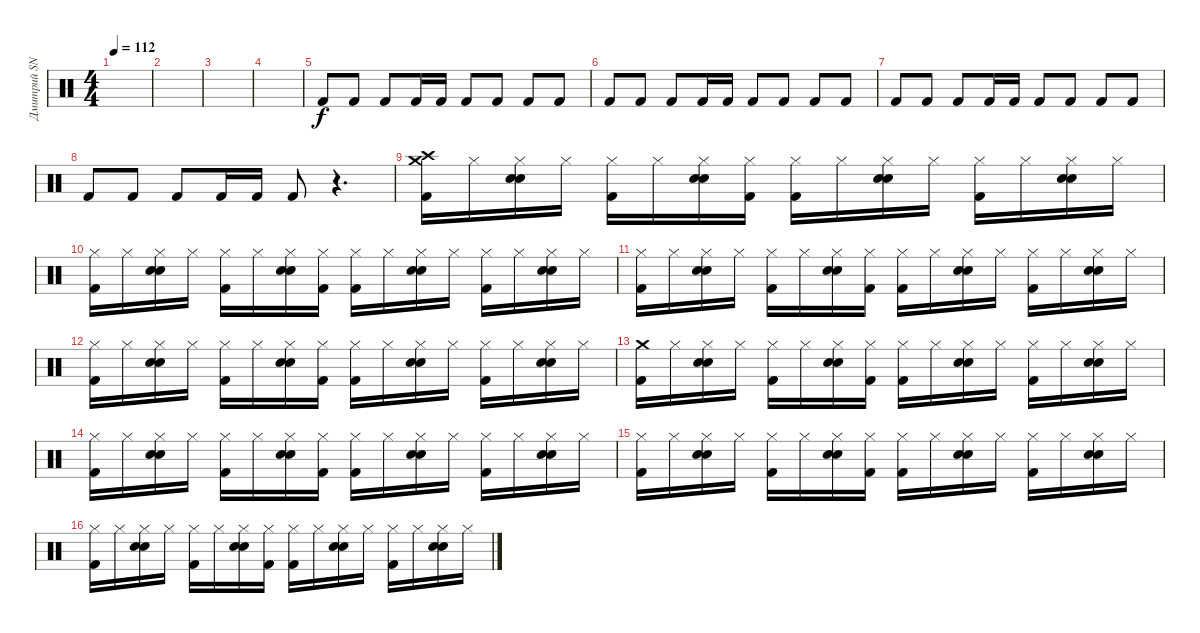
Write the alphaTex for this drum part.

\track ("Дмитрий SNAKE Хакимов" "Дмитрий SN") {instrument percussion}
\staff {score}
\articulation defaults
\ts (4 4)
\tempo 112
\clef neutral
\ks c
|
|
|
|
"Kick (hit) 2".8 "Kick (hit) 2".8 "Kick (hit) 2".8 "Kick (hit) 2".16 "Kick (hit) 2".16 "Kick (hit) 2".8 "Kick (hit) 2".8 "Kick (hit) 2".8 "Kick (hit) 2".8 |
"Kick (hit) 2".8 "Kick (hit) 2".8 "Kick (hit) 2".8 "Kick (hit) 2".16 "Kick (hit) 2".16 "Kick (hit) 2".8 "Kick (hit) 2".8 "Kick (hit) 2".8 "Kick (hit) 2".8 |
"Kick (hit) 2".8 "Kick (hit) 2".8 "Kick (hit) 2".8 "Kick (hit) 2".16 "Kick (hit) 2".16 "Kick (hit) 2".8 "Kick (hit) 2".8 "Kick (hit) 2".8 "Kick (hit) 2".8 |
"Kick (hit) 2".8 "Kick (hit) 2".8 "Kick (hit) 2".8 "Kick (hit) 2".16 "Kick (hit) 2".16 "Kick (hit) 2".8 r.4{d} |
("Crash high (hit)" "Crash medium (hit)" "Kick (hit) 2").16 "Hi-Hat (closed)".16 ("Hi-Hat (closed)" "Hand Clap (hit)" "Snare (hit) 2").16 "Hi-Hat (closed)".16 ("Hi-Hat (closed)" "Kick (hit) 2").16 "Hi-Hat (closed)".16 ("Hi-Hat (closed)" "Hand Clap (hit)" "Snare (hit) 2").16 ("Hi-Hat (closed)" "Kick (hit) 2").16 ("Hi-Hat (closed)" "Kick (hit) 2").16 "Hi-Hat (closed)".16 ("Hi-Hat (closed)" "Hand Clap (hit)" "Snare (hit) 2").16 "Hi-Hat (closed)".16 ("Hi-Hat (closed)" "Kick (hit) 2").16 "Hi-Hat (closed)".16 ("Hi-Hat (closed)" "Hand Clap (hit)" "Snare (hit) 2").16 "Hi-Hat (closed)".16 |
("Hi-Hat (closed)" "Kick (hit) 2").16 "Hi-Hat (closed)".16 ("Hi-Hat (closed)" "Hand Clap (hit)" "Snare (hit) 2").16 "Hi-Hat (closed)".16 ("Hi-Hat (closed)" "Kick (hit) 2").16 "Hi-Hat (closed)".16 ("Hi-Hat (closed)" "Hand Clap (hit)" "Snare (hit) 2").16 ("Hi-Hat (closed)" "Kick (hit) 2").16 ("Hi-Hat (closed)" "Kick (hit) 2").16 "Hi-Hat (closed)".16 ("Hi-Hat (closed)" "Hand Clap (hit)" "Snare (hit) 2").16 "Hi-Hat (closed)".16 ("Hi-Hat (closed)" "Kick (hit) 2").16 "Hi-Hat (closed)".16 ("Hi-Hat (closed)" "Hand Clap (hit)" "Snare (hit) 2").16 "Hi-Hat (closed)".16 |
("Hi-Hat (closed)" "Kick (hit) 2").16 "Hi-Hat (closed)".16 ("Hi-Hat (closed)" "Hand Clap (hit)" "Snare (hit) 2").16 "Hi-Hat (closed)".16 ("Hi-Hat (closed)" "Kick (hit) 2").16 "Hi-Hat (closed)".16 ("Hi-Hat (closed)" "Hand Clap (hit)" "Snare (hit) 2").16 ("Hi-Hat (closed)" "Kick (hit) 2").16 ("Hi-Hat (closed)" "Kick (hit) 2").16 "Hi-Hat (closed)".16 ("Hi-Hat (closed)" "Hand Clap (hit)" "Snare (hit) 2").16 "Hi-Hat (closed)".16 ("Hi-Hat (closed)" "Kick (hit) 2").16 "Hi-Hat (closed)".16 ("Hi-Hat (closed)" "Hand Clap (hit)" "Snare (hit) 2").16 "Hi-Hat (closed)".16 |
("Hi-Hat (closed)" "Kick (hit) 2").16 "Hi-Hat (closed)".16 ("Hi-Hat (closed)" "Hand Clap (hit)" "Snare (hit) 2").16 "Hi-Hat (closed)".16 ("Hi-Hat (closed)" "Kick (hit) 2").16 "Hi-Hat (closed)".16 ("Hi-Hat (closed)" "Hand Clap (hit)" "Snare (hit) 2").16 ("Hi-Hat (closed)" "Kick (hit) 2").16 ("Hi-Hat (closed)" "Kick (hit) 2").16 "Hi-Hat (closed)".16 ("Hi-Hat (closed)" "Hand Clap (hit)" "Snare (hit) 2").16 "Hi-Hat (closed)".16 ("Hi-Hat (closed)" "Kick (hit) 2").16 "Hi-Hat (closed)".16 ("Hi-Hat (closed)" "Hand Clap (hit)" "Snare (hit) 2").16 "Hi-Hat (closed)".16 |
("Crash medium (hit)" "Kick (hit) 2").16 "Hi-Hat (closed)".16 ("Hi-Hat (closed)" "Hand Clap (hit)" "Snare (hit) 2").16 "Hi-Hat (closed)".16 ("Hi-Hat (closed)" "Kick (hit) 2").16 "Hi-Hat (closed)".16 ("Hi-Hat (closed)" "Hand Clap (hit)" "Snare (hit) 2").16 ("Hi-Hat (closed)" "Kick (hit) 2").16 ("Hi-Hat (closed)" "Kick (hit) 2").16 "Hi-Hat (closed)".16 ("Hi-Hat (closed)" "Hand Clap (hit)" "Snare (hit) 2").16 "Hi-Hat (closed)".16 ("Hi-Hat (closed)" "Kick (hit) 2").16 "Hi-Hat (closed)".16 ("Hi-Hat (closed)" "Hand Clap (hit)" "Snare (hit) 2").16 "Hi-Hat (closed)".16 |
("Hi-Hat (closed)" "Kick (hit) 2").16 "Hi-Hat (closed)".16 ("Hi-Hat (closed)" "Hand Clap (hit)" "Snare (hit) 2").16 "Hi-Hat (closed)".16 ("Hi-Hat (closed)" "Kick (hit) 2").16 "Hi-Hat (closed)".16 ("Hi-Hat (closed)" "Hand Clap (hit)" "Snare (hit) 2").16 ("Hi-Hat (closed)" "Kick (hit) 2").16 ("Hi-Hat (closed)" "Kick (hit) 2").16 "Hi-Hat (closed)".16 ("Hi-Hat (closed)" "Hand Clap (hit)" "Snare (hit) 2").16 "Hi-Hat (closed)".16 ("Hi-Hat (closed)" "Kick (hit) 2").16 "Hi-Hat (closed)".16 ("Hi-Hat (closed)" "Hand Clap (hit)" "Snare (hit) 2").16 "Hi-Hat (closed)".16 |
("Hi-Hat (closed)" "Kick (hit) 2").16 "Hi-Hat (closed)".16 ("Hi-Hat (closed)" "Hand Clap (hit)" "Snare (hit) 2").16 "Hi-Hat (closed)".16 ("Hi-Hat (closed)" "Kick (hit) 2").16 "Hi-Hat (closed)".16 ("Hi-Hat (closed)" "Hand Clap (hit)" "Snare (hit) 2").16 ("Hi-Hat (closed)" "Kick (hit) 2").16 ("Hi-Hat (closed)" "Kick (hit) 2").16 "Hi-Hat (closed)".16 ("Hi-Hat (closed)" "Hand Clap (hit)" "Snare (hit) 2").16 "Hi-Hat (closed)".16 ("Hi-Hat (closed)" "Kick (hit) 2").16 "Hi-Hat (closed)".16 ("Hi-Hat (closed)" "Hand Clap (hit)" "Snare (hit) 2").16 "Hi-Hat (closed)".16 |
("Hi-Hat (closed)" "Kick (hit) 2").16 "Hi-Hat (closed)".16 ("Hi-Hat (closed)" "Hand Clap (hit)" "Snare (hit) 2").16 "Hi-Hat (closed)".16 ("Hi-Hat (closed)" "Kick (hit) 2").16 "Hi-Hat (closed)".16 ("Hi-Hat (closed)" "Hand Clap (hit)" "Snare (hit) 2").16 ("Hi-Hat (closed)" "Kick (hit) 2").16 ("Hi-Hat (closed)" "Kick (hit) 2").16 "Hi-Hat (closed)".16 ("Hi-Hat (closed)" "Hand Clap (hit)" "Snare (hit) 2").16 "Hi-Hat (closed)".16 ("Hi-Hat (closed)" "Kick (hit) 2").16 "Hi-Hat (closed)".16 ("Hi-Hat (closed)" "Hand Clap (hit)" "Snare (hit) 2").16 "Hi-Hat (closed)".16
